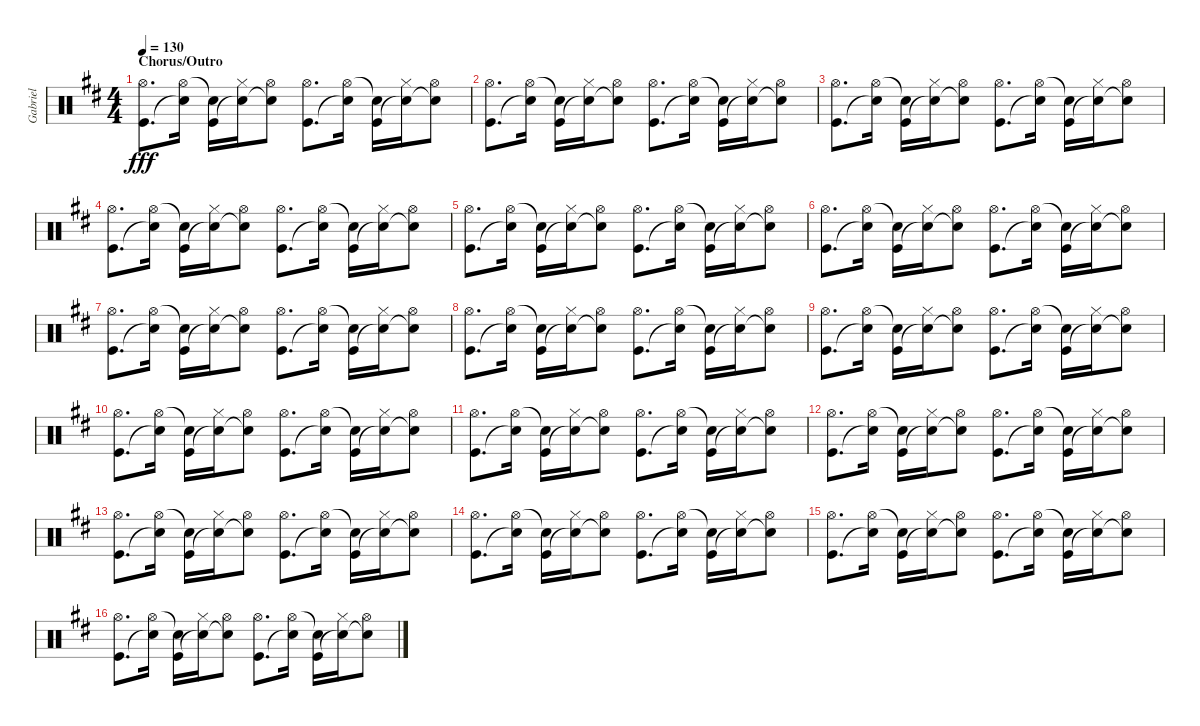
\track ("Gabriel" "Gabriel") {instrument percussion}
\staff {score}
\articulation defaults
\ts (4 4)
\section ("" "Chorus/Outro")
\tempo 130
\clef neutral
\ks d
("Hi-Hat (open)" "Kick (hit)").8{d dy fff} ("Hi-Hat (open)" "Snare (hit)"{t}).16 ("Snare (hit)"{t} "Kick (hit)").16 ("Hi-Hat (closed)" "Snare (hit)"{t}).16 ("Hi-Hat (open)" "Snare (hit)"{t}).8 ("Hi-Hat (open)" "Kick (hit)").8{d} ("Hi-Hat (open)" "Snare (hit)"{t}).16 ("Snare (hit)"{t} "Kick (hit)").16 ("Hi-Hat (closed)" "Snare (hit)"{t}).16 ("Hi-Hat (open)" "Snare (hit)"{t}).8 |
("Hi-Hat (open)" "Kick (hit)").8{d} ("Hi-Hat (open)" "Snare (hit)"{t}).16 ("Snare (hit)"{t} "Kick (hit)").16 ("Hi-Hat (closed)" "Snare (hit)"{t}).16 ("Hi-Hat (open)" "Snare (hit)"{t}).8 ("Hi-Hat (open)" "Kick (hit)").8{d} ("Hi-Hat (open)" "Snare (hit)"{t}).16 ("Snare (hit)"{t} "Kick (hit)").16 ("Hi-Hat (closed)" "Snare (hit)"{t}).16 ("Hi-Hat (open)" "Snare (hit)"{t}).8 |
("Hi-Hat (open)" "Kick (hit)").8{d} ("Hi-Hat (open)" "Snare (hit)"{t}).16 ("Snare (hit)"{t} "Kick (hit)").16 ("Hi-Hat (closed)" "Snare (hit)"{t}).16 ("Hi-Hat (open)" "Snare (hit)"{t}).8 ("Hi-Hat (open)" "Kick (hit)").8{d} ("Hi-Hat (open)" "Snare (hit)"{t}).16 ("Snare (hit)"{t} "Kick (hit)").16 ("Hi-Hat (closed)" "Snare (hit)"{t}).16 ("Hi-Hat (open)" "Snare (hit)"{t}).8 |
("Hi-Hat (open)" "Kick (hit)").8{d} ("Hi-Hat (open)" "Snare (hit)"{t}).16 ("Snare (hit)"{t} "Kick (hit)").16 ("Hi-Hat (closed)" "Snare (hit)"{t}).16 ("Hi-Hat (open)" "Snare (hit)"{t}).8 ("Hi-Hat (open)" "Kick (hit)").8{d} ("Hi-Hat (open)" "Snare (hit)"{t}).16 ("Snare (hit)"{t} "Kick (hit)").16 ("Hi-Hat (closed)" "Snare (hit)"{t}).16 ("Hi-Hat (open)" "Snare (hit)"{t}).8 |
("Hi-Hat (open)" "Kick (hit)").8{d} ("Hi-Hat (open)" "Snare (hit)"{t}).16 ("Snare (hit)"{t} "Kick (hit)").16 ("Hi-Hat (closed)" "Snare (hit)"{t}).16 ("Hi-Hat (open)" "Snare (hit)"{t}).8 ("Hi-Hat (open)" "Kick (hit)").8{d} ("Hi-Hat (open)" "Snare (hit)"{t}).16 ("Snare (hit)"{t} "Kick (hit)").16 ("Hi-Hat (closed)" "Snare (hit)"{t}).16 ("Hi-Hat (open)" "Snare (hit)"{t}).8 |
("Hi-Hat (open)" "Kick (hit)").8{d} ("Hi-Hat (open)" "Snare (hit)"{t}).16 ("Snare (hit)"{t} "Kick (hit)").16 ("Hi-Hat (closed)" "Snare (hit)"{t}).16 ("Hi-Hat (open)" "Snare (hit)"{t}).8 ("Hi-Hat (open)" "Kick (hit)").8{d} ("Hi-Hat (open)" "Snare (hit)"{t}).16 ("Snare (hit)"{t} "Kick (hit)").16 ("Hi-Hat (closed)" "Snare (hit)"{t}).16 ("Hi-Hat (open)" "Snare (hit)"{t}).8 |
("Hi-Hat (open)" "Kick (hit)").8{d} ("Hi-Hat (open)" "Snare (hit)"{t}).16 ("Snare (hit)"{t} "Kick (hit)").16 ("Hi-Hat (closed)" "Snare (hit)"{t}).16 ("Hi-Hat (open)" "Snare (hit)"{t}).8 ("Hi-Hat (open)" "Kick (hit)").8{d} ("Hi-Hat (open)" "Snare (hit)"{t}).16 ("Snare (hit)"{t} "Kick (hit)").16 ("Hi-Hat (closed)" "Snare (hit)"{t}).16 ("Hi-Hat (open)" "Snare (hit)"{t}).8 |
("Hi-Hat (open)" "Kick (hit)").8{d} ("Hi-Hat (open)" "Snare (hit)"{t}).16 ("Snare (hit)"{t} "Kick (hit)").16 ("Hi-Hat (closed)" "Snare (hit)"{t}).16 ("Hi-Hat (open)" "Snare (hit)"{t}).8 ("Hi-Hat (open)" "Kick (hit)").8{d} ("Hi-Hat (open)" "Snare (hit)"{t}).16 ("Snare (hit)"{t} "Kick (hit)").16 ("Hi-Hat (closed)" "Snare (hit)"{t}).16 ("Hi-Hat (open)" "Snare (hit)"{t}).8 |
("Hi-Hat (open)" "Kick (hit)").8{d} ("Hi-Hat (open)" "Snare (hit)"{t}).16 ("Snare (hit)"{t} "Kick (hit)").16 ("Hi-Hat (closed)" "Snare (hit)"{t}).16 ("Hi-Hat (open)" "Snare (hit)"{t}).8 ("Hi-Hat (open)" "Kick (hit)").8{d} ("Hi-Hat (open)" "Snare (hit)"{t}).16 ("Snare (hit)"{t} "Kick (hit)").16 ("Hi-Hat (closed)" "Snare (hit)"{t}).16 ("Hi-Hat (open)" "Snare (hit)"{t}).8 |
("Hi-Hat (open)" "Kick (hit)").8{d} ("Hi-Hat (open)" "Snare (hit)"{t}).16 ("Snare (hit)"{t} "Kick (hit)").16 ("Hi-Hat (closed)" "Snare (hit)"{t}).16 ("Hi-Hat (open)" "Snare (hit)"{t}).8 ("Hi-Hat (open)" "Kick (hit)").8{d} ("Hi-Hat (open)" "Snare (hit)"{t}).16 ("Snare (hit)"{t} "Kick (hit)").16 ("Hi-Hat (closed)" "Snare (hit)"{t}).16 ("Hi-Hat (open)" "Snare (hit)"{t}).8 |
("Hi-Hat (open)" "Kick (hit)").8{d} ("Hi-Hat (open)" "Snare (hit)"{t}).16 ("Snare (hit)"{t} "Kick (hit)").16 ("Hi-Hat (closed)" "Snare (hit)"{t}).16 ("Hi-Hat (open)" "Snare (hit)"{t}).8 ("Hi-Hat (open)" "Kick (hit)").8{d} ("Hi-Hat (open)" "Snare (hit)"{t}).16 ("Snare (hit)"{t} "Kick (hit)").16 ("Hi-Hat (closed)" "Snare (hit)"{t}).16 ("Hi-Hat (open)" "Snare (hit)"{t}).8 |
("Hi-Hat (open)" "Kick (hit)").8{d} ("Hi-Hat (open)" "Snare (hit)"{t}).16 ("Snare (hit)"{t} "Kick (hit)").16 ("Hi-Hat (closed)" "Snare (hit)"{t}).16 ("Hi-Hat (open)" "Snare (hit)"{t}).8 ("Hi-Hat (open)" "Kick (hit)").8{d} ("Hi-Hat (open)" "Snare (hit)"{t}).16 ("Snare (hit)"{t} "Kick (hit)").16 ("Hi-Hat (closed)" "Snare (hit)"{t}).16 ("Hi-Hat (open)" "Snare (hit)"{t}).8 |
("Hi-Hat (open)" "Kick (hit)").8{d} ("Hi-Hat (open)" "Snare (hit)"{t}).16 ("Snare (hit)"{t} "Kick (hit)").16 ("Hi-Hat (closed)" "Snare (hit)"{t}).16 ("Hi-Hat (open)" "Snare (hit)"{t}).8 ("Hi-Hat (open)" "Kick (hit)").8{d} ("Hi-Hat (open)" "Snare (hit)"{t}).16 ("Snare (hit)"{t} "Kick (hit)").16 ("Hi-Hat (closed)" "Snare (hit)"{t}).16 ("Hi-Hat (open)" "Snare (hit)"{t}).8 |
("Hi-Hat (open)" "Kick (hit)").8{d} ("Hi-Hat (open)" "Snare (hit)"{t}).16 ("Snare (hit)"{t} "Kick (hit)").16 ("Hi-Hat (closed)" "Snare (hit)"{t}).16 ("Hi-Hat (open)" "Snare (hit)"{t}).8 ("Hi-Hat (open)" "Kick (hit)").8{d} ("Hi-Hat (open)" "Snare (hit)"{t}).16 ("Snare (hit)"{t} "Kick (hit)").16 ("Hi-Hat (closed)" "Snare (hit)"{t}).16 ("Hi-Hat (open)" "Snare (hit)"{t}).8 |
("Hi-Hat (open)" "Kick (hit)").8{d} ("Hi-Hat (open)" "Snare (hit)"{t}).16 ("Snare (hit)"{t} "Kick (hit)").16 ("Hi-Hat (closed)" "Snare (hit)"{t}).16 ("Hi-Hat (open)" "Snare (hit)"{t}).8 ("Hi-Hat (open)" "Kick (hit)").8{d} ("Hi-Hat (open)" "Snare (hit)"{t}).16 ("Snare (hit)"{t} "Kick (hit)").16 ("Hi-Hat (closed)" "Snare (hit)"{t}).16 ("Hi-Hat (open)" "Snare (hit)"{t}).8 |
("Hi-Hat (open)" "Kick (hit)").8{d} ("Hi-Hat (open)" "Snare (hit)"{t}).16 ("Snare (hit)"{t} "Kick (hit)").16 ("Hi-Hat (closed)" "Snare (hit)"{t}).16 ("Hi-Hat (open)" "Snare (hit)"{t}).8 ("Hi-Hat (open)" "Kick (hit)").8{d} ("Hi-Hat (open)" "Snare (hit)"{t}).16 ("Snare (hit)"{t} "Kick (hit)").16 ("Hi-Hat (closed)" "Snare (hit)"{t}).16 ("Hi-Hat (open)" "Snare (hit)"{t}).8
